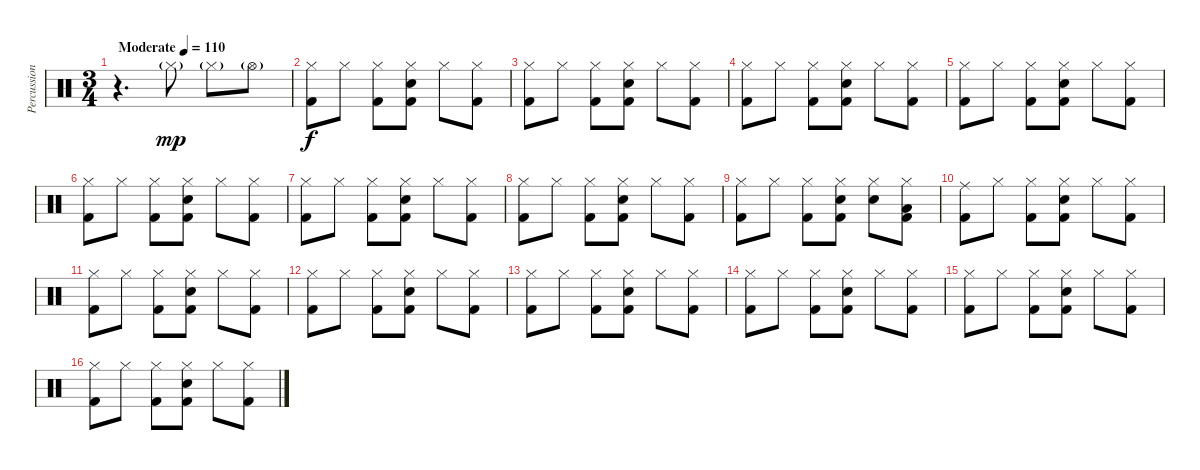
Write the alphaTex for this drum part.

\track ("Percussion" "Percussion") {instrument percussion}
\staff {score}
\articulation defaults
\ts (3 4)
\tempo (110 "Moderate")
\clef neutral
\ks c
r.4{d dy mp} "Hi-Hat (closed)"{g}.8 "Hi-Hat (closed)"{g}.8 "Hi-Hat (open)"{g}.8 |
("Hi-Hat (closed)" "Kick (hit) 2").8{dy f} "Hi-Hat (closed)".8 ("Hi-Hat (closed)" "Kick (hit) 2").8 ("Hi-Hat (closed)" "Electric Snare (hit)" "Kick (hit) 2").8 "Hi-Hat (closed)".8 ("Hi-Hat (closed)" "Kick (hit) 2").8 |
("Hi-Hat (closed)" "Kick (hit) 2").8 "Hi-Hat (closed)".8 ("Hi-Hat (closed)" "Kick (hit) 2").8 ("Hi-Hat (closed)" "Electric Snare (hit)" "Kick (hit) 2").8 "Hi-Hat (closed)".8 ("Hi-Hat (closed)" "Kick (hit) 2").8 |
("Hi-Hat (closed)" "Kick (hit) 2").8 "Hi-Hat (closed)".8 ("Hi-Hat (closed)" "Kick (hit) 2").8 ("Hi-Hat (closed)" "Electric Snare (hit)" "Kick (hit) 2").8 "Hi-Hat (closed)".8 ("Hi-Hat (closed)" "Kick (hit) 2").8 |
("Hi-Hat (closed)" "Kick (hit) 2").8 "Hi-Hat (closed)".8 ("Hi-Hat (closed)" "Kick (hit) 2").8 ("Hi-Hat (closed)" "Electric Snare (hit)" "Kick (hit) 2").8 "Hi-Hat (closed)".8 ("Hi-Hat (closed)" "Kick (hit) 2").8 |
("Hi-Hat (closed)" "Kick (hit) 2").8 "Hi-Hat (closed)".8 ("Hi-Hat (closed)" "Kick (hit) 2").8 ("Hi-Hat (closed)" "Electric Snare (hit)" "Kick (hit) 2").8 "Hi-Hat (closed)".8 ("Hi-Hat (closed)" "Kick (hit) 2").8 |
("Hi-Hat (closed)" "Kick (hit) 2").8 "Hi-Hat (closed)".8 ("Hi-Hat (closed)" "Kick (hit) 2").8 ("Hi-Hat (closed)" "Electric Snare (hit)" "Kick (hit) 2").8 "Hi-Hat (closed)".8 ("Hi-Hat (closed)" "Kick (hit) 2").8 |
("Hi-Hat (closed)" "Kick (hit) 2").8 "Hi-Hat (closed)".8 ("Hi-Hat (closed)" "Kick (hit) 2").8 ("Hi-Hat (closed)" "Electric Snare (hit)" "Kick (hit) 2").8 "Hi-Hat (closed)".8 ("Hi-Hat (closed)" "Kick (hit) 2").8 |
("Hi-Hat (closed)" "Kick (hit) 2").8 "Hi-Hat (closed)".8 ("Hi-Hat (closed)" "Kick (hit) 2").8 ("Hi-Hat (closed)" "Electric Snare (hit)" "Kick (hit) 2").8 ("Hi-Hat (closed)" "Electric Snare (hit)").8 ("Hi-Hat (closed)" "Low Tom (hit)" "Kick (hit) 2").8 |
("Ride (middle)" "Kick (hit) 2").8 "Hi-Hat (closed)".8 ("Hi-Hat (closed)" "Kick (hit) 2").8 ("Hi-Hat (closed)" "Electric Snare (hit)" "Kick (hit) 2").8 "Hi-Hat (closed)".8 ("Hi-Hat (closed)" "Kick (hit) 2").8 |
("Hi-Hat (closed)" "Kick (hit) 2").8 "Hi-Hat (closed)".8 ("Hi-Hat (closed)" "Kick (hit) 2").8 ("Hi-Hat (closed)" "Electric Snare (hit)" "Kick (hit) 2").8 "Hi-Hat (closed)".8 ("Hi-Hat (closed)" "Kick (hit) 2").8 |
("Hi-Hat (closed)" "Kick (hit) 2").8 "Hi-Hat (closed)".8 ("Hi-Hat (closed)" "Kick (hit) 2").8 ("Hi-Hat (closed)" "Electric Snare (hit)" "Kick (hit) 2").8 "Hi-Hat (closed)".8 ("Hi-Hat (closed)" "Kick (hit) 2").8 |
("Hi-Hat (closed)" "Kick (hit) 2").8 "Hi-Hat (closed)".8 ("Hi-Hat (closed)" "Kick (hit) 2").8 ("Hi-Hat (closed)" "Electric Snare (hit)" "Kick (hit) 2").8 "Hi-Hat (closed)".8 ("Hi-Hat (closed)" "Kick (hit) 2").8 |
("Hi-Hat (closed)" "Kick (hit) 2").8 "Hi-Hat (closed)".8 ("Hi-Hat (closed)" "Kick (hit) 2").8 ("Hi-Hat (closed)" "Electric Snare (hit)" "Kick (hit) 2").8 "Hi-Hat (closed)".8 ("Hi-Hat (closed)" "Kick (hit) 2").8 |
("Hi-Hat (closed)" "Kick (hit) 2").8 "Hi-Hat (closed)".8 ("Hi-Hat (closed)" "Kick (hit) 2").8 ("Hi-Hat (closed)" "Electric Snare (hit)" "Kick (hit) 2").8 "Hi-Hat (closed)".8 ("Hi-Hat (closed)" "Kick (hit) 2").8 |
("Hi-Hat (closed)" "Kick (hit) 2").8 "Hi-Hat (closed)".8 ("Hi-Hat (closed)" "Kick (hit) 2").8 ("Hi-Hat (closed)" "Electric Snare (hit)" "Kick (hit) 2").8 "Hi-Hat (closed)".8 ("Hi-Hat (closed)" "Kick (hit) 2").8
